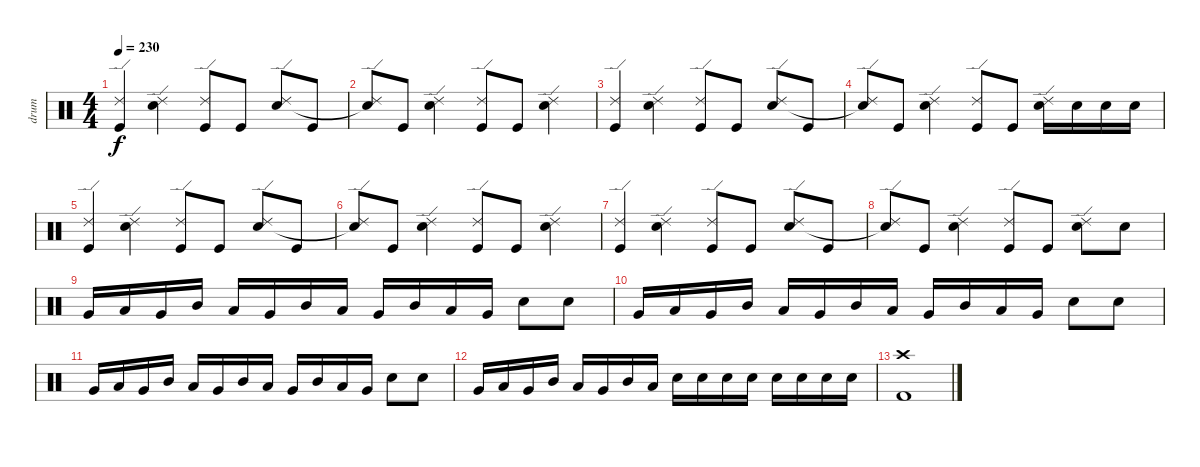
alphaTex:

\track ("drum" "drum") {instrument percussion}
\staff {score}
\articulation defaults
\ts (4 4)
\tempo 230
\clef neutral
\ks c
("Ride (edge) 2" "Kick (hit)").4{dy f} ("Ride (edge) 2" "Snare (hit) 2").4 ("Ride (edge) 2" "Kick (hit)").8 "Kick (hit)".8 ("Ride (edge) 2" "Snare (hit) 2").8 "Kick (hit)".8 |
("Ride (edge) 2" "Snare (hit) 2"{t}).8 "Kick (hit)".8 ("Ride (edge) 2" "Snare (hit) 2").4 ("Ride (edge) 2" "Kick (hit)").8 "Kick (hit)".8 ("Ride (edge) 2" "Snare (hit) 2").4 |
("Ride (edge) 2" "Kick (hit)").4 ("Ride (edge) 2" "Snare (hit) 2").4 ("Ride (edge) 2" "Kick (hit)").8 "Kick (hit)".8 ("Ride (edge) 2" "Snare (hit) 2").8 "Kick (hit)".8 |
("Ride (edge) 2" "Snare (hit) 2"{t}).8 "Kick (hit)".8 ("Ride (edge) 2" "Snare (hit) 2").4 ("Ride (edge) 2" "Kick (hit)").8 "Kick (hit)".8 ("Ride (edge) 2" "Snare (hit) 2").16 "Snare (hit) 2".16 "Snare (hit) 2".16 "Snare (hit) 2".16 |
("Ride (edge) 2" "Kick (hit)").4 ("Ride (edge) 2" "Snare (hit) 2").4 ("Ride (edge) 2" "Kick (hit)").8 "Kick (hit)".8 ("Ride (edge) 2" "Snare (hit) 2").8 "Kick (hit)".8 |
("Ride (edge) 2" "Snare (hit) 2"{t}).8 "Kick (hit)".8 ("Ride (edge) 2" "Snare (hit) 2").4 ("Ride (edge) 2" "Kick (hit)").8 "Kick (hit)".8 ("Ride (edge) 2" "Snare (hit) 2").4 |
("Ride (edge) 2" "Kick (hit)").4 ("Ride (edge) 2" "Snare (hit) 2").4 ("Ride (edge) 2" "Kick (hit)").8 "Kick (hit)".8 ("Ride (edge) 2" "Snare (hit) 2").8 "Kick (hit)".8 |
("Ride (edge) 2" "Snare (hit) 2"{t}).8 "Kick (hit)".8 ("Ride (edge) 2" "Snare (hit) 2").4 ("Ride (edge) 2" "Kick (hit)").8 "Kick (hit)".8 ("Ride (edge) 2" "Snare (hit) 2").8 "Snare (hit) 2".8 |
"Very Low Tom (hit)".16 "Low Tom (hit)".16 "Very Low Tom (hit)".16 "Mid Tom (hit)".16 "Low Tom (hit)".16 "Very Low Tom (hit)".16 "Mid Tom (hit)".16 "Low Tom (hit)".16 "Very Low Tom (hit)".16 "Mid Tom (hit)".16 "Low Tom (hit)".16 "Very Low Tom (hit)".16 "Snare (hit) 2".8 "Snare (hit) 2".8 |
"Very Low Tom (hit)".16 "Low Tom (hit)".16 "Very Low Tom (hit)".16 "Mid Tom (hit)".16 "Low Tom (hit)".16 "Very Low Tom (hit)".16 "Mid Tom (hit)".16 "Low Tom (hit)".16 "Very Low Tom (hit)".16 "Mid Tom (hit)".16 "Low Tom (hit)".16 "Very Low Tom (hit)".16 "Snare (hit) 2".8 "Snare (hit) 2".8 |
"Very Low Tom (hit)".16 "Low Tom (hit)".16 "Very Low Tom (hit)".16 "Mid Tom (hit)".16 "Low Tom (hit)".16 "Very Low Tom (hit)".16 "Mid Tom (hit)".16 "Low Tom (hit)".16 "Very Low Tom (hit)".16 "Mid Tom (hit)".16 "Low Tom (hit)".16 "Very Low Tom (hit)".16 "Snare (hit) 2".8 "Snare (hit) 2".8 |
"Very Low Tom (hit)".16 "Low Tom (hit)".16 "Very Low Tom (hit)".16 "Mid Tom (hit)".16 "Low Tom (hit)".16 "Very Low Tom (hit)".16 "Mid Tom (hit)".16 "Low Tom (hit)".16 "Snare (hit) 2".16 "Snare (hit) 2".16 "Snare (hit) 2".16 "Snare (hit) 2".16 "Snare (hit) 2".16 "Snare (hit) 2".16 "Snare (hit) 2".16 "Snare (hit) 2".16 |
("Crash high (hit)" "Kick (hit) 2").1
